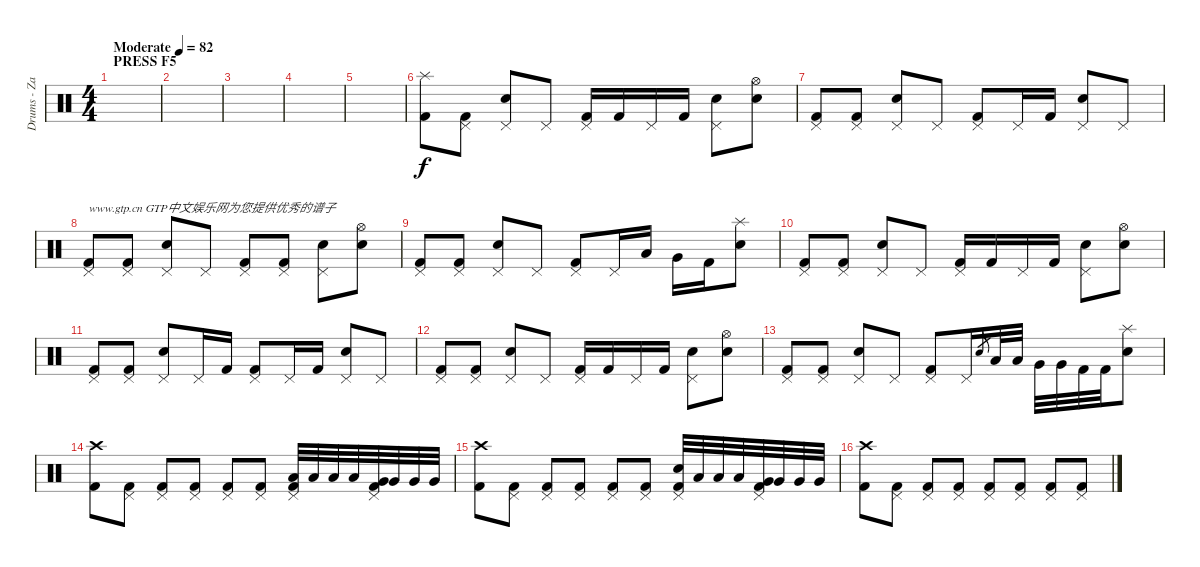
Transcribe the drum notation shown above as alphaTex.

\track ("Drums - Zac Farro" "Drums - Za") {instrument percussion}
\staff {score}
\articulation defaults
\ts (4 4)
\section ("" "PRESS F5")
\tempo (82 "Moderate")
\clef neutral
\ks c
|
|
|
|
|
("Splash (hit)" "Kick (hit) 2").8 ("Pedal Hi-Hat (hit)" "Kick (hit) 2").8 ("Pedal Hi-Hat (hit)" "Snare (hit) 2").8 "Pedal Hi-Hat (hit)".8 ("Pedal Hi-Hat (hit)" "Kick (hit) 2").16 "Kick (hit) 2".16 "Pedal Hi-Hat (hit)".16 "Kick (hit) 2".16 ("Pedal Hi-Hat (hit)" "Snare (hit) 2").8 ("Hi-Hat (open)" "Snare (hit) 2").8 |
("Pedal Hi-Hat (hit)" "Kick (hit) 2").8 ("Pedal Hi-Hat (hit)" "Kick (hit) 2").8 ("Pedal Hi-Hat (hit)" "Snare (hit) 2").8 "Pedal Hi-Hat (hit)".8 ("Pedal Hi-Hat (hit)" "Kick (hit) 2").8 "Pedal Hi-Hat (hit)".16 "Kick (hit) 2".16 ("Pedal Hi-Hat (hit)" "Snare (hit) 2").8 "Pedal Hi-Hat (hit)".8 |
("Pedal Hi-Hat (hit)" "Kick (hit) 2").8{txt "www.gtp.cn GTP中文娱乐网为您提供优秀的谱子"} ("Pedal Hi-Hat (hit)" "Kick (hit) 2").8 ("Pedal Hi-Hat (hit)" "Snare (hit) 2").8 "Pedal Hi-Hat (hit)".8 ("Pedal Hi-Hat (hit)" "Kick (hit) 2").8 ("Pedal Hi-Hat (hit)" "Kick (hit) 2").8 ("Pedal Hi-Hat (hit)" "Snare (hit) 2").8 ("Hi-Hat (open)" "Snare (hit) 2").8 |
("Pedal Hi-Hat (hit)" "Kick (hit) 2").8 ("Pedal Hi-Hat (hit)" "Kick (hit) 2").8 ("Pedal Hi-Hat (hit)" "Snare (hit) 2").8 "Pedal Hi-Hat (hit)".8 ("Pedal Hi-Hat (hit)" "Kick (hit) 2").8 "Pedal Hi-Hat (hit)".16 "Low Tom (hit)".16 "Very Low Tom (hit)".16 "Kick (hit) 2".16 ("Splash (hit)" "Snare (hit) 2").8 |
("Pedal Hi-Hat (hit)" "Kick (hit) 2").8 ("Pedal Hi-Hat (hit)" "Kick (hit) 2").8 ("Pedal Hi-Hat (hit)" "Snare (hit) 2").8 "Pedal Hi-Hat (hit)".8 ("Pedal Hi-Hat (hit)" "Kick (hit) 2").16 "Kick (hit) 2".16 "Pedal Hi-Hat (hit)".16 "Kick (hit) 2".16 ("Pedal Hi-Hat (hit)" "Snare (hit) 2").8 ("Hi-Hat (open)" "Snare (hit) 2").8 |
("Pedal Hi-Hat (hit)" "Kick (hit) 2").8 ("Pedal Hi-Hat (hit)" "Kick (hit) 2").8 ("Pedal Hi-Hat (hit)" "Snare (hit) 2").8 "Pedal Hi-Hat (hit)".16 "Kick (hit) 2".16 ("Pedal Hi-Hat (hit)" "Kick (hit) 2").8 "Pedal Hi-Hat (hit)".16 "Kick (hit) 2".16 ("Pedal Hi-Hat (hit)" "Snare (hit) 2").8 "Pedal Hi-Hat (hit)".8 |
("Pedal Hi-Hat (hit)" "Kick (hit) 2").8 ("Pedal Hi-Hat (hit)" "Kick (hit) 2").8 ("Pedal Hi-Hat (hit)" "Snare (hit) 2").8 "Pedal Hi-Hat (hit)".8 ("Pedal Hi-Hat (hit)" "Kick (hit) 2").16 "Kick (hit) 2".16 "Pedal Hi-Hat (hit)".16 "Kick (hit) 2".16 ("Pedal Hi-Hat (hit)" "Snare (hit) 2").8 ("Hi-Hat (open)" "Snare (hit) 2").8 |
("Pedal Hi-Hat (hit)" "Kick (hit) 2").8 ("Pedal Hi-Hat (hit)" "Kick (hit) 2").8 ("Pedal Hi-Hat (hit)" "Snare (hit) 2").8 "Pedal Hi-Hat (hit)".8 ("Pedal Hi-Hat (hit)" "Kick (hit) 2").8 "Pedal Hi-Hat (hit)".16 "Snare (hit) 2".8{gr} "Low Tom (hit)".32 "Low Tom (hit)".32 "Very Low Tom (hit)".32 "Very Low Tom (hit)".32 "Kick (hit) 2".32 "Kick (hit) 2".32 ("Splash (hit)" "Snare (hit) 2").8 |
("Crash high (hit)" "Kick (hit) 2").8 ("Pedal Hi-Hat (hit)" "Kick (hit) 2").8 ("Pedal Hi-Hat (hit)" "Kick (hit) 2").8 ("Pedal Hi-Hat (hit)" "Kick (hit) 2").8 ("Pedal Hi-Hat (hit)" "Kick (hit) 2").8 ("Pedal Hi-Hat (hit)" "Kick (hit) 2").8 ("Pedal Hi-Hat (hit)" "Kick (hit) 2" "Low Tom (hit)").32 "Low Tom (hit)".32 "Low Tom (hit)".32 "Low Tom (hit)".32 ("Pedal Hi-Hat (hit)" "Kick (hit) 2" "Very Low Tom (hit)").32 "Very Low Tom (hit)".32 "Very Low Tom (hit)".32 "Very Low Tom (hit)".32 |
("Crash high (hit)" "Kick (hit) 2").8 ("Pedal Hi-Hat (hit)" "Kick (hit) 2").8 ("Pedal Hi-Hat (hit)" "Kick (hit) 2").8 ("Pedal Hi-Hat (hit)" "Kick (hit) 2").8 ("Pedal Hi-Hat (hit)" "Kick (hit) 2").8 ("Pedal Hi-Hat (hit)" "Kick (hit) 2").8 ("Pedal Hi-Hat (hit)" "Kick (hit) 2" "Snare (hit) 2").32 "Low Tom (hit)".32 "Low Tom (hit)".32 "Low Tom (hit)".32 ("Pedal Hi-Hat (hit)" "Kick (hit) 2" "Very Low Tom (hit)").32 "Very Low Tom (hit)".32 "Very Low Tom (hit)".32 "Very Low Tom (hit)".32 |
("Crash high (hit)" "Kick (hit) 2").8 ("Pedal Hi-Hat (hit)" "Kick (hit) 2").8 ("Pedal Hi-Hat (hit)" "Kick (hit) 2").8 ("Pedal Hi-Hat (hit)" "Kick (hit) 2").8 ("Pedal Hi-Hat (hit)" "Kick (hit) 2").8 ("Pedal Hi-Hat (hit)" "Kick (hit) 2").8 ("Pedal Hi-Hat (hit)" "Kick (hit) 2").8 ("Pedal Hi-Hat (hit)" "Kick (hit) 2").8
